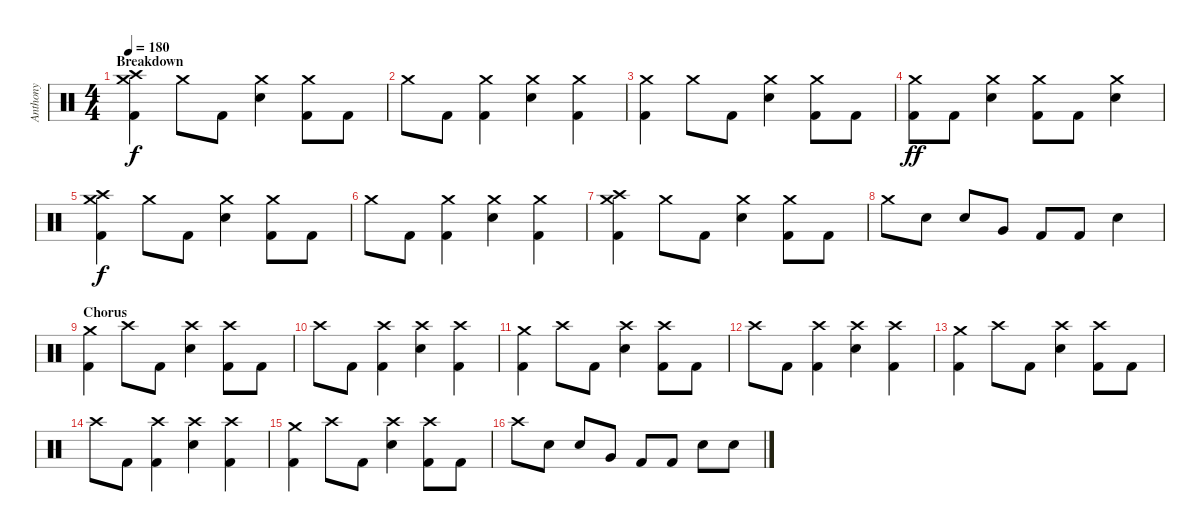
\track ("Anthony" "Anthony") {instrument percussion}
\staff {score}
\articulation defaults
\ts (4 4)
\section ("" "Breakdown")
\tempo 180
\clef neutral
\ks c
("Crash medium (hit)" "Crash high (hit)" "Kick (hit) 2").4{dy f} "Crash medium (hit)".8 "Kick (hit) 2".8 ("Crash medium (hit)" "Electric Snare (hit)").4 ("Crash medium (hit)" "Kick (hit) 2").8 "Kick (hit) 2".8 |
"Crash medium (hit)".8 "Kick (hit) 2".8 ("Crash medium (hit)" "Kick (hit) 2").4 ("Crash medium (hit)" "Electric Snare (hit)").4 ("Crash medium (hit)" "Kick (hit) 2").4 |
("Crash medium (hit)" "Kick (hit) 2").4 "Crash medium (hit)".8 "Kick (hit) 2".8 ("Crash medium (hit)" "Electric Snare (hit)").4 ("Crash medium (hit)" "Kick (hit) 2").8 "Kick (hit) 2".8 |
("Crash medium (hit)" "Kick (hit) 2").8{dy ff} "Kick (hit) 2".8 ("Crash medium (hit)" "Electric Snare (hit)").4 ("Crash medium (hit)" "Kick (hit) 2").8 "Kick (hit) 2".8 ("Crash medium (hit)" "Electric Snare (hit)").4 |
("Crash medium (hit)" "Crash high (hit)" "Kick (hit) 2").4{dy f} "Crash medium (hit)".8 "Kick (hit) 2".8 ("Crash medium (hit)" "Electric Snare (hit)").4 ("Crash medium (hit)" "Kick (hit) 2").8 "Kick (hit) 2".8 |
"Crash medium (hit)".8 "Kick (hit) 2".8 ("Crash medium (hit)" "Kick (hit) 2").4 ("Crash medium (hit)" "Electric Snare (hit)").4 ("Crash medium (hit)" "Kick (hit) 2").4 |
("Crash medium (hit)" "Crash high (hit)" "Kick (hit) 2").4 "Crash medium (hit)".8 "Kick (hit) 2".8 ("Crash medium (hit)" "Electric Snare (hit)").4 ("Crash medium (hit)" "Kick (hit) 2").8 "Kick (hit) 2".8 |
"Crash medium (hit)".8 "Electric Snare (hit)".8 "Electric Snare (hit)".8 "Very Low Tom (hit)".8 "Kick (hit) 2".8 "Kick (hit) 2".8 "Electric Snare (hit)".4 |
\section ("" "Chorus")
("Crash medium (hit)" "Kick (hit) 2").4 "Crash high (hit)".8 "Kick (hit) 2".8 ("Crash high (hit)" "Electric Snare (hit)").4 ("Crash high (hit)" "Kick (hit) 2").8 "Kick (hit) 2".8 |
"Crash high (hit)".8 "Kick (hit) 2".8 ("Crash high (hit)" "Kick (hit) 2").4 ("Crash high (hit)" "Electric Snare (hit)").4 ("Crash high (hit)" "Kick (hit) 2").4 |
("Crash medium (hit)" "Kick (hit) 2").4 "Crash high (hit)".8 "Kick (hit) 2".8 ("Crash high (hit)" "Electric Snare (hit)").4 ("Crash high (hit)" "Kick (hit) 2").8 "Kick (hit) 2".8 |
"Crash high (hit)".8 "Kick (hit) 2".8 ("Crash high (hit)" "Kick (hit) 2").4 ("Crash high (hit)" "Electric Snare (hit)").4 ("Crash high (hit)" "Kick (hit) 2").4 |
("Crash medium (hit)" "Kick (hit) 2").4 "Crash high (hit)".8 "Kick (hit) 2".8 ("Crash high (hit)" "Electric Snare (hit)").4 ("Crash high (hit)" "Kick (hit) 2").8 "Kick (hit) 2".8 |
"Crash high (hit)".8 "Kick (hit) 2".8 ("Crash high (hit)" "Kick (hit) 2").4 ("Crash high (hit)" "Electric Snare (hit)").4 ("Crash high (hit)" "Kick (hit) 2").4 |
("Crash medium (hit)" "Kick (hit) 2").4 "Crash high (hit)".8 "Kick (hit) 2".8 ("Crash high (hit)" "Electric Snare (hit)").4 ("Crash high (hit)" "Kick (hit) 2").8 "Kick (hit) 2".8 |
"Crash high (hit)".8 "Electric Snare (hit)".8 "Electric Snare (hit)".8 "Very Low Tom (hit)".8 "Kick (hit) 2".8 "Kick (hit) 2".8 "Electric Snare (hit)".8 "Electric Snare (hit)".8
